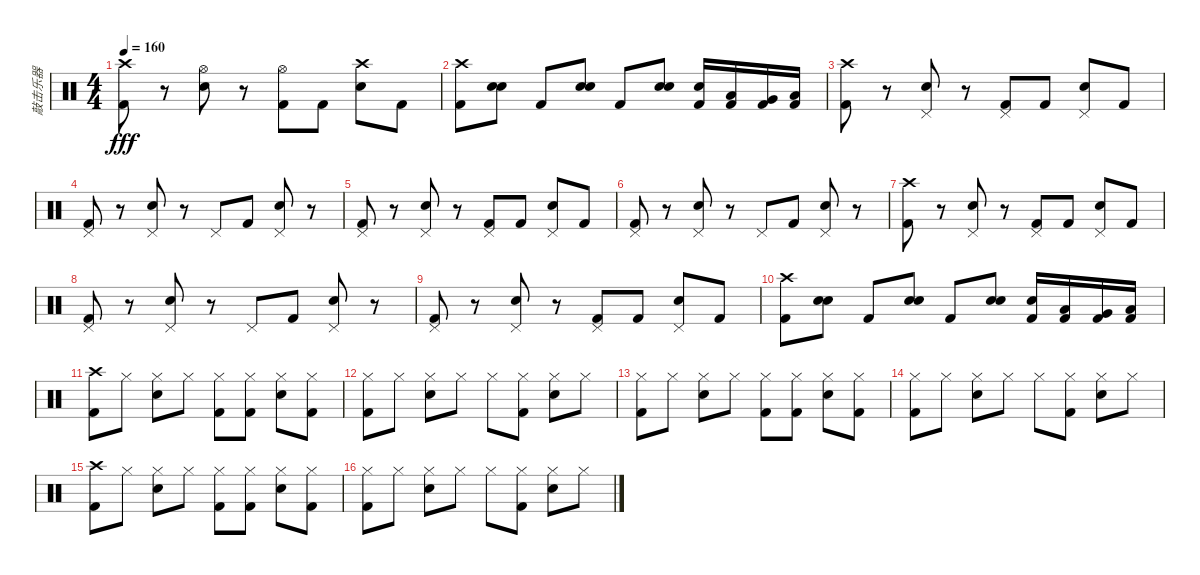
\track ("敲击乐器" "敲击乐器") {instrument percussion}
\staff {score}
\articulation defaults
\ts (4 4)
\tempo 160
\clef neutral
\ks c
("Crash high (hit)" "Kick (hit) 2").8{dy fff} r.8 ("Hi-Hat (open)" "Electric Snare (hit)").8 r.8 ("Hi-Hat (open)" "Kick (hit) 2").8 "Kick (hit) 2".8 ("Crash high (hit)" "Electric Snare (hit)").8 "Kick (hit) 2".8 |
("Crash high (hit)" "Kick (hit) 2").8 ("Snare (hit) 2" "Electric Snare (hit)").8 "Kick (hit) 2".8 ("Snare (hit) 2" "Electric Snare (hit)").8 "Kick (hit) 2".8 ("Snare (hit) 2" "Electric Snare (hit)").8 ("Electric Snare (hit)" "Kick (hit) 2").16 ("Low Tom (hit)" "Kick (hit) 2").16 ("Very Low Tom (hit)" "Kick (hit) 2").16 ("Low Floor Tom (hit)" "Kick (hit) 2").16 |
("Crash high (hit)" "Kick (hit) 2").8 r.8 ("Pedal Hi-Hat (hit)" "Electric Snare (hit)").8 r.8 ("Pedal Hi-Hat (hit)" "Kick (hit) 2").8 "Kick (hit) 2".8 ("Pedal Hi-Hat (hit)" "Electric Snare (hit)").8 "Kick (hit) 2".8 |
("Pedal Hi-Hat (hit)" "Kick (hit) 2").8 r.8 ("Pedal Hi-Hat (hit)" "Electric Snare (hit)").8 r.8 "Pedal Hi-Hat (hit)".8 "Kick (hit) 2".8 ("Pedal Hi-Hat (hit)" "Electric Snare (hit)").8 r.8 |
("Pedal Hi-Hat (hit)" "Kick (hit) 2").8 r.8 ("Pedal Hi-Hat (hit)" "Electric Snare (hit)").8 r.8 ("Pedal Hi-Hat (hit)" "Kick (hit) 2").8 "Kick (hit) 2".8 ("Pedal Hi-Hat (hit)" "Electric Snare (hit)").8 "Kick (hit) 2".8 |
("Pedal Hi-Hat (hit)" "Kick (hit) 2").8 r.8 ("Pedal Hi-Hat (hit)" "Electric Snare (hit)").8 r.8 "Pedal Hi-Hat (hit)".8 "Kick (hit) 2".8 ("Pedal Hi-Hat (hit)" "Electric Snare (hit)").8 r.8 |
("Crash high (hit)" "Kick (hit) 2").8 r.8 ("Pedal Hi-Hat (hit)" "Electric Snare (hit)").8 r.8 ("Pedal Hi-Hat (hit)" "Kick (hit) 2").8 "Kick (hit) 2".8 ("Pedal Hi-Hat (hit)" "Electric Snare (hit)").8 "Kick (hit) 2".8 |
("Pedal Hi-Hat (hit)" "Kick (hit) 2").8 r.8 ("Pedal Hi-Hat (hit)" "Electric Snare (hit)").8 r.8 "Pedal Hi-Hat (hit)".8 "Kick (hit) 2".8 ("Pedal Hi-Hat (hit)" "Electric Snare (hit)").8 r.8 |
("Pedal Hi-Hat (hit)" "Kick (hit) 2").8 r.8 ("Pedal Hi-Hat (hit)" "Electric Snare (hit)").8 r.8 ("Pedal Hi-Hat (hit)" "Kick (hit) 2").8 "Kick (hit) 2".8 ("Pedal Hi-Hat (hit)" "Electric Snare (hit)").8 "Kick (hit) 2".8 |
("Crash high (hit)" "Kick (hit) 2").8 ("Snare (hit) 2" "Electric Snare (hit)").8 "Kick (hit) 2".8 ("Snare (hit) 2" "Electric Snare (hit)").8 "Kick (hit) 2".8 ("Snare (hit) 2" "Electric Snare (hit)").8 ("Electric Snare (hit)" "Kick (hit) 2").16 ("Low Tom (hit)" "Kick (hit) 2").16 ("Very Low Tom (hit)" "Kick (hit) 2").16 ("Low Floor Tom (hit)" "Kick (hit) 2").16 |
("Crash high (hit)" "Kick (hit) 2").8 "Hi-Hat (closed)".8 ("Hi-Hat (closed)" "Electric Snare (hit)").8 "Hi-Hat (closed)".8 ("Hi-Hat (closed)" "Kick (hit) 2").8 ("Hi-Hat (closed)" "Kick (hit) 2").8 ("Hi-Hat (closed)" "Electric Snare (hit)").8 ("Hi-Hat (closed)" "Kick (hit) 2").8 |
("Hi-Hat (closed)" "Kick (hit) 2").8 "Hi-Hat (closed)".8 ("Hi-Hat (closed)" "Electric Snare (hit)").8 "Hi-Hat (closed)".8 "Hi-Hat (closed)".8 ("Hi-Hat (closed)" "Kick (hit) 2").8 ("Hi-Hat (closed)" "Electric Snare (hit)").8 "Hi-Hat (closed)".8 |
("Hi-Hat (closed)" "Kick (hit) 2").8 "Hi-Hat (closed)".8 ("Hi-Hat (closed)" "Electric Snare (hit)").8 "Hi-Hat (closed)".8 ("Hi-Hat (closed)" "Kick (hit) 2").8 ("Hi-Hat (closed)" "Kick (hit) 2").8 ("Hi-Hat (closed)" "Electric Snare (hit)").8 ("Hi-Hat (closed)" "Kick (hit) 2").8 |
("Hi-Hat (closed)" "Kick (hit) 2").8 "Hi-Hat (closed)".8 ("Hi-Hat (closed)" "Electric Snare (hit)").8 "Hi-Hat (closed)".8 "Hi-Hat (closed)".8 ("Hi-Hat (closed)" "Kick (hit) 2").8 ("Hi-Hat (closed)" "Electric Snare (hit)").8 "Hi-Hat (closed)".8 |
("Crash high (hit)" "Kick (hit) 2").8 "Hi-Hat (closed)".8 ("Hi-Hat (closed)" "Electric Snare (hit)").8 "Hi-Hat (closed)".8 ("Hi-Hat (closed)" "Kick (hit) 2").8 ("Hi-Hat (closed)" "Kick (hit) 2").8 ("Hi-Hat (closed)" "Electric Snare (hit)").8 ("Hi-Hat (closed)" "Kick (hit) 2").8 |
("Hi-Hat (closed)" "Kick (hit) 2").8 "Hi-Hat (closed)".8 ("Hi-Hat (closed)" "Electric Snare (hit)").8 "Hi-Hat (closed)".8 "Hi-Hat (closed)".8 ("Hi-Hat (closed)" "Kick (hit) 2").8 ("Hi-Hat (closed)" "Electric Snare (hit)").8 "Hi-Hat (closed)".8
